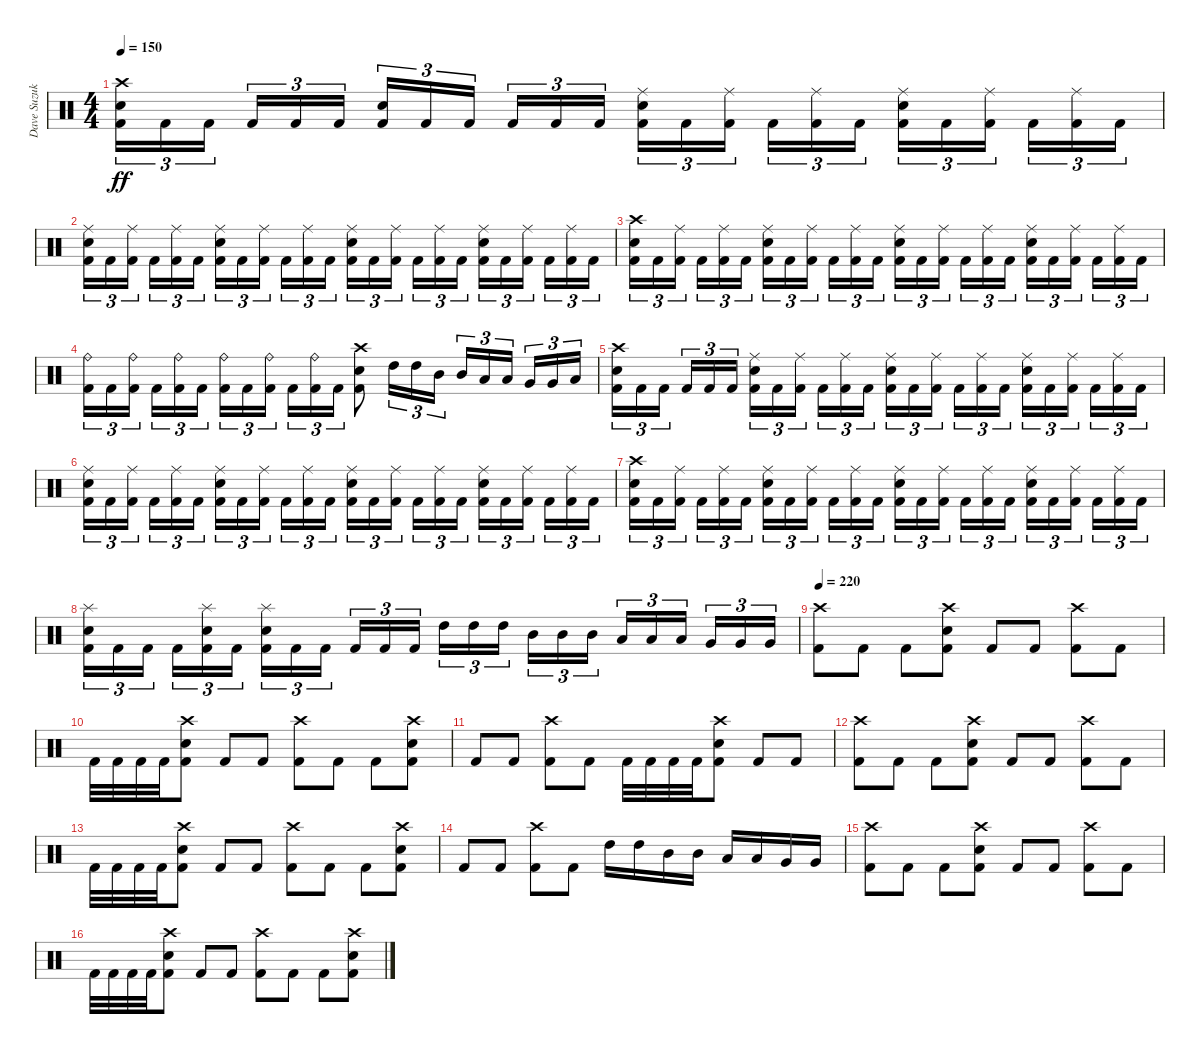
\track ("Dave Suzuki - Drums" "Dave Suzuk") {instrument percussion}
\staff {score}
\articulation defaults
\ts (4 4)
\tempo 150
\clef neutral
\ks c
("Crash high (hit)" "Electric Snare (hit)" "Kick (hit) 2").16{tu (3 2) dy ff} "Kick (hit) 2".16{tu (3 2)} "Kick (hit) 2".16{tu (3 2) beam splitsecondary} "Kick (hit) 2".16{tu (3 2)} "Kick (hit) 2".16{tu (3 2)} "Kick (hit) 2".16{tu (3 2)} ("Electric Snare (hit)" "Kick (hit) 2").16{tu (3 2)} "Kick (hit) 2".16{tu (3 2)} "Kick (hit) 2".16{tu (3 2) beam splitsecondary} "Kick (hit) 2".16{tu (3 2)} "Kick (hit) 2".16{tu (3 2)} "Kick (hit) 2".16{tu (3 2)} ("Ride (middle)" "Electric Snare (hit)" "Kick (hit) 2").16{tu (3 2)} "Kick (hit) 2".16{tu (3 2)} ("Ride (middle)" "Kick (hit) 2").16{tu (3 2) beam splitsecondary} "Kick (hit) 2".16{tu (3 2)} ("Ride (middle)" "Kick (hit) 2").16{tu (3 2)} "Kick (hit) 2".16{tu (3 2)} ("Ride (middle)" "Electric Snare (hit)" "Kick (hit) 2").16{tu (3 2)} "Kick (hit) 2".16{tu (3 2)} ("Ride (middle)" "Kick (hit) 2").16{tu (3 2) beam splitsecondary} "Kick (hit) 2".16{tu (3 2)} ("Ride (middle)" "Kick (hit) 2").16{tu (3 2)} "Kick (hit) 2".16{tu (3 2)} |
("Ride (middle)" "Electric Snare (hit)" "Kick (hit) 2").16{tu (3 2)} "Kick (hit) 2".16{tu (3 2)} ("Ride (middle)" "Kick (hit) 2").16{tu (3 2) beam splitsecondary} "Kick (hit) 2".16{tu (3 2)} ("Ride (middle)" "Kick (hit) 2").16{tu (3 2)} "Kick (hit) 2".16{tu (3 2)} ("Ride (middle)" "Electric Snare (hit)" "Kick (hit) 2").16{tu (3 2)} "Kick (hit) 2".16{tu (3 2)} ("Ride (middle)" "Kick (hit) 2").16{tu (3 2) beam splitsecondary} "Kick (hit) 2".16{tu (3 2)} ("Ride (middle)" "Kick (hit) 2").16{tu (3 2)} "Kick (hit) 2".16{tu (3 2)} ("Ride (middle)" "Electric Snare (hit)" "Kick (hit) 2").16{tu (3 2)} "Kick (hit) 2".16{tu (3 2)} ("Ride (middle)" "Kick (hit) 2").16{tu (3 2) beam splitsecondary} "Kick (hit) 2".16{tu (3 2)} ("Ride (middle)" "Kick (hit) 2").16{tu (3 2)} "Kick (hit) 2".16{tu (3 2)} ("Ride (middle)" "Electric Snare (hit)" "Kick (hit) 2").16{tu (3 2)} "Kick (hit) 2".16{tu (3 2)} ("Ride (middle)" "Kick (hit) 2").16{tu (3 2) beam splitsecondary} "Kick (hit) 2".16{tu (3 2)} ("Ride (middle)" "Kick (hit) 2").16{tu (3 2)} "Kick (hit) 2".16{tu (3 2)} |
("Crash high (hit)" "Electric Snare (hit)" "Kick (hit) 2").16{tu (3 2)} "Kick (hit) 2".16{tu (3 2)} ("Ride (middle)" "Kick (hit) 2").16{tu (3 2) beam splitsecondary} "Kick (hit) 2".16{tu (3 2)} ("Ride (middle)" "Kick (hit) 2").16{tu (3 2)} "Kick (hit) 2".16{tu (3 2)} ("Ride (middle)" "Electric Snare (hit)" "Kick (hit) 2").16{tu (3 2)} "Kick (hit) 2".16{tu (3 2)} ("Ride (middle)" "Kick (hit) 2").16{tu (3 2) beam splitsecondary} "Kick (hit) 2".16{tu (3 2)} ("Ride (middle)" "Kick (hit) 2").16{tu (3 2)} "Kick (hit) 2".16{tu (3 2)} ("Ride (middle)" "Electric Snare (hit)" "Kick (hit) 2").16{tu (3 2)} "Kick (hit) 2".16{tu (3 2)} ("Ride (middle)" "Kick (hit) 2").16{tu (3 2) beam splitsecondary} "Kick (hit) 2".16{tu (3 2)} ("Ride (middle)" "Kick (hit) 2").16{tu (3 2)} "Kick (hit) 2".16{tu (3 2)} ("Ride (middle)" "Electric Snare (hit)" "Kick (hit) 2").16{tu (3 2)} "Kick (hit) 2".16{tu (3 2)} ("Ride (middle)" "Kick (hit) 2").16{tu (3 2) beam splitsecondary} "Kick (hit) 2".16{tu (3 2)} ("Ride (middle)" "Kick (hit) 2").16{tu (3 2)} "Kick (hit) 2".16{tu (3 2)} |
("Ride (bell)" "Kick (hit) 2").16{tu (3 2)} "Kick (hit) 2".16{tu (3 2)} ("Ride (bell)" "Kick (hit) 2").16{tu (3 2) beam splitsecondary} "Kick (hit) 2".16{tu (3 2)} ("Ride (bell)" "Kick (hit) 2").16{tu (3 2)} "Kick (hit) 2".16{tu (3 2)} ("Ride (bell)" "Kick (hit) 2").16{tu (3 2)} "Kick (hit) 2".16{tu (3 2)} ("Ride (bell)" "Kick (hit) 2").16{tu (3 2) beam splitsecondary} "Kick (hit) 2".16{tu (3 2)} ("Ride (bell)" "Kick (hit) 2").16{tu (3 2)} "Kick (hit) 2".16{tu (3 2)} ("Crash high (hit)" "Electric Snare (hit)" "Kick (hit) 2").8 "High Tom (hit)".16{tu (3 2)} "High Tom (hit)".16{tu (3 2)} "Mid Tom (hit)".16{tu (3 2)} "Mid Tom (hit)".16{tu (3 2)} "Low Tom (hit)".16{tu (3 2)} "Low Tom (hit)".16{tu (3 2) beam splitsecondary} "Very Low Tom (hit)".16{tu (3 2)} "Very Low Tom (hit)".16{tu (3 2)} "Low Floor Tom (hit)".16{tu (3 2)} |
("Crash high (hit)" "Electric Snare (hit)" "Kick (hit) 2").16{tu (3 2)} "Kick (hit) 2".16{tu (3 2)} "Kick (hit) 2".16{tu (3 2) beam splitsecondary} "Kick (hit) 2".16{tu (3 2)} "Kick (hit) 2".16{tu (3 2)} "Kick (hit) 2".16{tu (3 2)} ("Ride (middle)" "Electric Snare (hit)" "Kick (hit) 2").16{tu (3 2)} "Kick (hit) 2".16{tu (3 2)} ("Ride (middle)" "Kick (hit) 2").16{tu (3 2) beam splitsecondary} "Kick (hit) 2".16{tu (3 2)} ("Ride (middle)" "Kick (hit) 2").16{tu (3 2)} "Kick (hit) 2".16{tu (3 2)} ("Ride (middle)" "Electric Snare (hit)" "Kick (hit) 2").16{tu (3 2)} "Kick (hit) 2".16{tu (3 2)} ("Ride (middle)" "Kick (hit) 2").16{tu (3 2) beam splitsecondary} "Kick (hit) 2".16{tu (3 2)} ("Ride (middle)" "Kick (hit) 2").16{tu (3 2)} "Kick (hit) 2".16{tu (3 2)} ("Ride (middle)" "Electric Snare (hit)" "Kick (hit) 2").16{tu (3 2)} "Kick (hit) 2".16{tu (3 2)} ("Ride (middle)" "Kick (hit) 2").16{tu (3 2) beam splitsecondary} "Kick (hit) 2".16{tu (3 2)} ("Ride (middle)" "Kick (hit) 2").16{tu (3 2)} "Kick (hit) 2".16{tu (3 2)} |
("Ride (middle)" "Electric Snare (hit)" "Kick (hit) 2").16{tu (3 2)} "Kick (hit) 2".16{tu (3 2)} ("Ride (middle)" "Kick (hit) 2").16{tu (3 2) beam splitsecondary} "Kick (hit) 2".16{tu (3 2)} ("Ride (middle)" "Kick (hit) 2").16{tu (3 2)} "Kick (hit) 2".16{tu (3 2)} ("Ride (middle)" "Electric Snare (hit)" "Kick (hit) 2").16{tu (3 2)} "Kick (hit) 2".16{tu (3 2)} ("Ride (middle)" "Kick (hit) 2").16{tu (3 2) beam splitsecondary} "Kick (hit) 2".16{tu (3 2)} ("Ride (middle)" "Kick (hit) 2").16{tu (3 2)} "Kick (hit) 2".16{tu (3 2)} ("Ride (middle)" "Electric Snare (hit)" "Kick (hit) 2").16{tu (3 2)} "Kick (hit) 2".16{tu (3 2)} ("Ride (middle)" "Kick (hit) 2").16{tu (3 2) beam splitsecondary} "Kick (hit) 2".16{tu (3 2)} ("Ride (middle)" "Kick (hit) 2").16{tu (3 2)} "Kick (hit) 2".16{tu (3 2)} ("Ride (middle)" "Electric Snare (hit)" "Kick (hit) 2").16{tu (3 2)} "Kick (hit) 2".16{tu (3 2)} ("Ride (middle)" "Kick (hit) 2").16{tu (3 2) beam splitsecondary} "Kick (hit) 2".16{tu (3 2)} ("Ride (middle)" "Kick (hit) 2").16{tu (3 2)} "Kick (hit) 2".16{tu (3 2)} |
("Crash high (hit)" "Electric Snare (hit)" "Kick (hit) 2").16{tu (3 2)} "Kick (hit) 2".16{tu (3 2)} ("Ride (middle)" "Kick (hit) 2").16{tu (3 2) beam splitsecondary} "Kick (hit) 2".16{tu (3 2)} ("Ride (middle)" "Kick (hit) 2").16{tu (3 2)} "Kick (hit) 2".16{tu (3 2)} ("Ride (middle)" "Electric Snare (hit)" "Kick (hit) 2").16{tu (3 2)} "Kick (hit) 2".16{tu (3 2)} ("Ride (middle)" "Kick (hit) 2").16{tu (3 2) beam splitsecondary} "Kick (hit) 2".16{tu (3 2)} ("Ride (middle)" "Kick (hit) 2").16{tu (3 2)} "Kick (hit) 2".16{tu (3 2)} ("Ride (middle)" "Electric Snare (hit)" "Kick (hit) 2").16{tu (3 2)} "Kick (hit) 2".16{tu (3 2)} ("Ride (middle)" "Kick (hit) 2").16{tu (3 2) beam splitsecondary} "Kick (hit) 2".16{tu (3 2)} ("Ride (middle)" "Kick (hit) 2").16{tu (3 2)} "Kick (hit) 2".16{tu (3 2)} ("Ride (middle)" "Electric Snare (hit)" "Kick (hit) 2").16{tu (3 2)} "Kick (hit) 2".16{tu (3 2)} ("Ride (middle)" "Kick (hit) 2").16{tu (3 2) beam splitsecondary} "Kick (hit) 2".16{tu (3 2)} ("Ride (middle)" "Kick (hit) 2").16{tu (3 2)} "Kick (hit) 2".16{tu (3 2)} |
("Splash (hit)" "Electric Snare (hit)" "Kick (hit) 2").16{tu (3 2)} "Kick (hit) 2".16{tu (3 2)} "Kick (hit) 2".16{tu (3 2) beam splitsecondary} "Kick (hit) 2".16{tu (3 2)} ("Splash (hit)" "Electric Snare (hit)" "Kick (hit) 2").16{tu (3 2)} "Kick (hit) 2".16{tu (3 2)} ("Splash (hit)" "Electric Snare (hit)" "Kick (hit) 2").16{tu (3 2)} "Kick (hit) 2".16{tu (3 2)} "Kick (hit) 2".16{tu (3 2) beam splitsecondary} "Kick (hit) 2".16{tu (3 2)} "Kick (hit) 2".16{tu (3 2)} "Kick (hit) 2".16{tu (3 2)} "High Tom (hit)".16{tu (3 2)} "High Tom (hit)".16{tu (3 2)} "High Tom (hit)".16{tu (3 2) beam splitsecondary} "Mid Tom (hit)".16{tu (3 2)} "Mid Tom (hit)".16{tu (3 2)} "Mid Tom (hit)".16{tu (3 2)} "Low Tom (hit)".16{tu (3 2)} "Low Tom (hit)".16{tu (3 2)} "Low Tom (hit)".16{tu (3 2) beam splitsecondary} "Very Low Tom (hit)".16{tu (3 2)} "Very Low Tom (hit)".16{tu (3 2)} "Very Low Tom (hit)".16{tu (3 2)} |
\tempo 220
("Crash high (hit)" "Kick (hit) 2").8 "Kick (hit) 2".8 "Kick (hit) 2".8 ("Crash high (hit)" "Electric Snare (hit)" "Kick (hit) 2").8 "Kick (hit) 2".8 "Kick (hit) 2".8 ("Crash high (hit)" "Kick (hit) 2").8 "Kick (hit) 2".8 |
"Kick (hit) 2".32 "Kick (hit) 2".32 "Kick (hit) 2".32 "Kick (hit) 2".32 ("Crash high (hit)" "Electric Snare (hit)" "Kick (hit) 2").8 "Kick (hit) 2".8 "Kick (hit) 2".8 ("Crash high (hit)" "Kick (hit) 2").8 "Kick (hit) 2".8 "Kick (hit) 2".8 ("Crash high (hit)" "Electric Snare (hit)" "Kick (hit) 2").8 |
"Kick (hit) 2".8 "Kick (hit) 2".8 ("Crash high (hit)" "Kick (hit) 2").8 "Kick (hit) 2".8 "Kick (hit) 2".32 "Kick (hit) 2".32 "Kick (hit) 2".32 "Kick (hit) 2".32 ("Crash high (hit)" "Electric Snare (hit)" "Kick (hit) 2").8 "Kick (hit) 2".8 "Kick (hit) 2".8 |
("Crash high (hit)" "Kick (hit) 2").8 "Kick (hit) 2".8 "Kick (hit) 2".8 ("Crash high (hit)" "Electric Snare (hit)" "Kick (hit) 2").8 "Kick (hit) 2".8 "Kick (hit) 2".8 ("Crash high (hit)" "Kick (hit) 2").8 "Kick (hit) 2".8 |
"Kick (hit) 2".32 "Kick (hit) 2".32 "Kick (hit) 2".32 "Kick (hit) 2".32 ("Crash high (hit)" "Electric Snare (hit)" "Kick (hit) 2").8 "Kick (hit) 2".8 "Kick (hit) 2".8 ("Crash high (hit)" "Kick (hit) 2").8 "Kick (hit) 2".8 "Kick (hit) 2".8 ("Crash high (hit)" "Electric Snare (hit)" "Kick (hit) 2").8 |
"Kick (hit) 2".8 "Kick (hit) 2".8 ("Crash high (hit)" "Kick (hit) 2").8 "Kick (hit) 2".8 "High Tom (hit)".16 "High Tom (hit)".16 "Mid Tom (hit)".16 "Mid Tom (hit)".16 "Low Tom (hit)".16 "Low Tom (hit)".16 "Very Low Tom (hit)".16 "Very Low Tom (hit)".16 |
("Crash high (hit)" "Kick (hit) 2").8 "Kick (hit) 2".8 "Kick (hit) 2".8 ("Crash high (hit)" "Electric Snare (hit)" "Kick (hit) 2").8 "Kick (hit) 2".8 "Kick (hit) 2".8 ("Crash high (hit)" "Kick (hit) 2").8 "Kick (hit) 2".8 |
"Kick (hit) 2".32 "Kick (hit) 2".32 "Kick (hit) 2".32 "Kick (hit) 2".32 ("Crash high (hit)" "Electric Snare (hit)" "Kick (hit) 2").8 "Kick (hit) 2".8 "Kick (hit) 2".8 ("Crash high (hit)" "Kick (hit) 2").8 "Kick (hit) 2".8 "Kick (hit) 2".8 ("Crash high (hit)" "Electric Snare (hit)" "Kick (hit) 2").8
